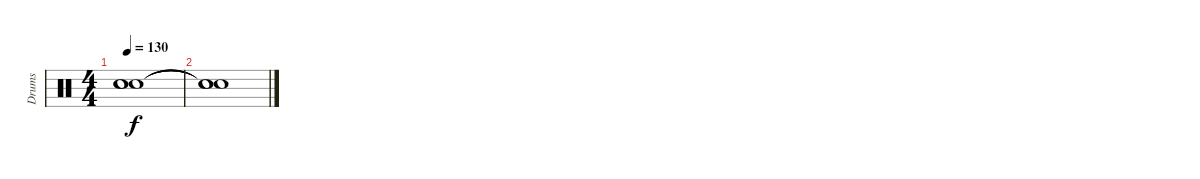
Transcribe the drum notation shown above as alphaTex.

\track ("Drums" "Drums") {instrument percussion}
\staff {score}
\articulation defaults
\ts (4 4)
\tempo 130
\clef neutral
\ks c
("Snare (hit)"{t} "Snare (hit)"{t} "Snare (hit)"{t}).1{dy f} |
("Snare (hit)"{t} "Snare (hit)"{t} "Snare (hit)"{t}).1
